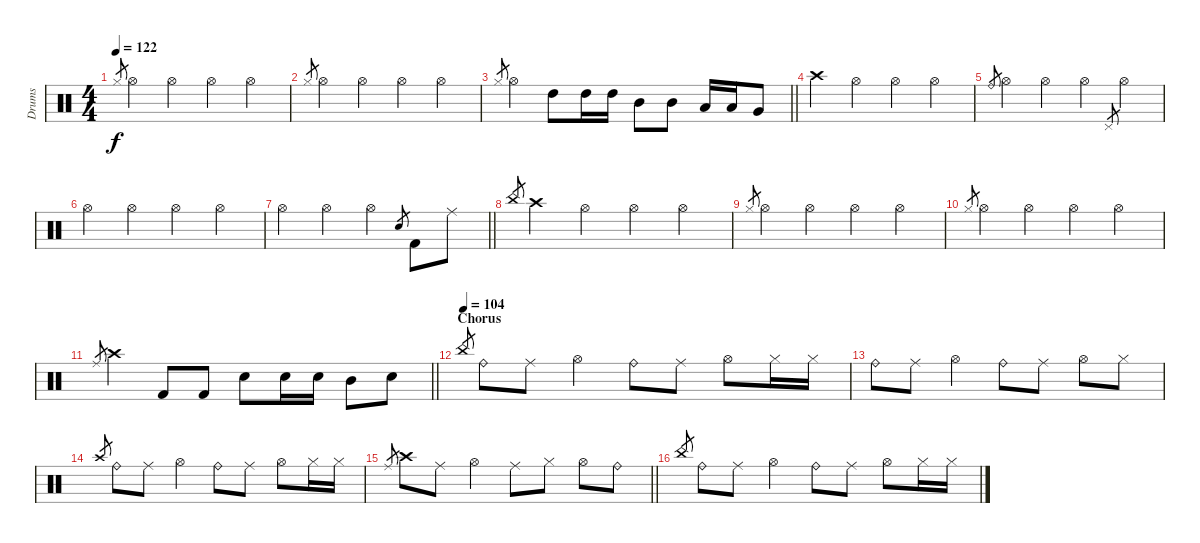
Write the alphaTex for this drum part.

\track ("Drums" "Drums") {instrument percussion}
\staff {score}
\articulation defaults
\ts (4 4)
\tempo 122
\clef neutral
\ks c "Hi-Hat (closed)".8{gr dy f} "Hi-Hat (open)".4 "Hi-Hat (open)".4 "Hi-Hat (open)".4 "Hi-Hat (open)".4
|
"Hi-Hat (closed)".8{gr} "Hi-Hat (open)".4 "Hi-Hat (open)".4 "Hi-Hat (open)".4 "Hi-Hat (open)".4 |
\barLineRight lightlight "Hi-Hat (closed)".8{gr} "Hi-Hat (open)".4 "High Tom (hit)".8 "High Tom (hit)".16 "High Tom (hit)".16 "Mid Tom (hit)".8 "Mid Tom (hit)".8 "Low Tom (hit)".16 "Low Tom (hit)".16 "Very Low Tom (hit)".8
|
"Crash high (hit)".4 "Hi-Hat (open)".4 "Hi-Hat (open)".4 "Hi-Hat (open)".4 |
"Ride (bell)".8{gr} "Hi-Hat (open)".4 "Hi-Hat (open)".4 "Hi-Hat (open)".4 "Pedal Hi-Hat (hit)".8{gr} "Hi-Hat (open)".4 |
"Hi-Hat (open)".4 "Hi-Hat (open)".4 "Hi-Hat (open)".4 "Hi-Hat (open)".4 |
\barLineRight lightlight "Hi-Hat (open)".4 "Hi-Hat (open)".4 "Hi-Hat (open)".4 "Electric Snare (hit)".8{gr} "Kick (hit) 2".8 "Ride (middle)".8
|
"China (hit)".8{gr} "Crash high (hit)".4 "Hi-Hat (open)".4 "Hi-Hat (open)".4 "Hi-Hat (open)".4 |
"Hi-Hat (closed)".8{gr} "Hi-Hat (open)".4 "Hi-Hat (open)".4 "Hi-Hat (open)".4 "Hi-Hat (open)".4 |
"Hi-Hat (closed)".8{gr} "Hi-Hat (open)".4 "Hi-Hat (open)".4 "Hi-Hat (open)".4 "Hi-Hat (open)".4 |
\barLineRight lightlight "Ride (middle)".8{gr} "Crash high (hit)".4 "Kick (hit) 2".8 "Kick (hit) 2".8 "Snare (hit) 2".8 "Snare (hit) 2".16 "Snare (hit) 2".16 "Mid Tom (hit)".8 "Snare (hit) 2".8
|
\section ("" "Chorus")
\tempo (104)
"China (hit)".8{gr} "Ride (bell)".8 "Ride (middle)".8 "Hi-Hat (open)".4 "Ride (bell)".8 "Ride (middle)".8 "Hi-Hat (open)".8 "Hi-Hat (closed)".16 "Hi-Hat (closed)".16 |
"Ride (bell)".8 "Ride (middle)".8 "Hi-Hat (open)".4 "Ride (bell)".8 "Ride (middle)".8 "Hi-Hat (open)".8 "Hi-Hat (closed)".8 |
"Crash high (hit)".8{gr} "Ride (bell)".8 "Ride (middle)".8 "Hi-Hat (open)".4 "Ride (bell)".8 "Ride (middle)".8 "Hi-Hat (open)".8 "Hi-Hat (closed)".16 "Hi-Hat (closed)".16 |
\barLineRight lightlight "Ride (middle)".8{gr} "Crash high (hit)".8 "Ride (middle)".8 "Hi-Hat (open)".4 "Ride (middle)".8 "Hi-Hat (closed)".8 "Hi-Hat (open)".8 "Ride (bell)".8
|
"China (hit)".8{gr} "Ride (bell)".8 "Ride (middle)".8 "Hi-Hat (open)".4 "Ride (bell)".8 "Ride (middle)".8 "Hi-Hat (open)".8 "Hi-Hat (closed)".16 "Hi-Hat (closed)".16
